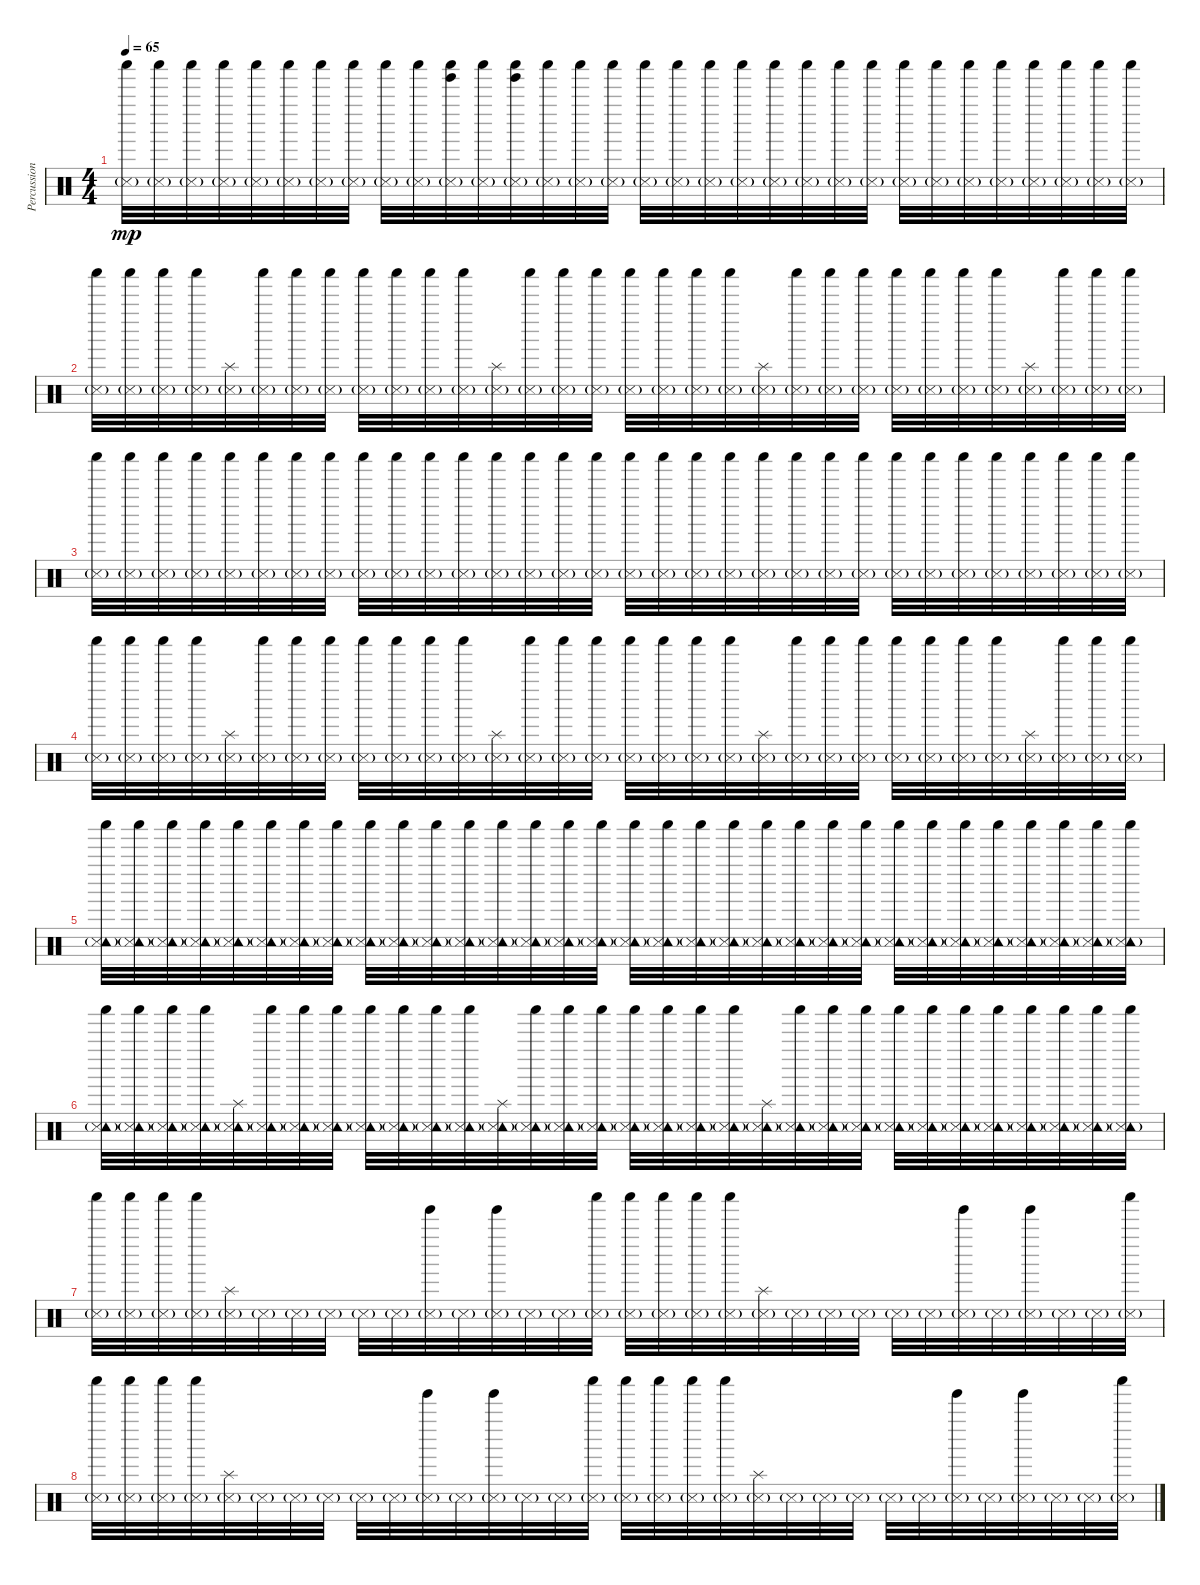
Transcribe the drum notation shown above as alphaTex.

\track ("Percussion 2" "Percussion") {instrument percussion}
\staff {score}
\articulation defaults
\ts (4 4)
\section ("" "")
\tempo 65
\clef neutral
\ks c
("Snare (side stick) 3"{g} "Shaker (hit)").32{dy mp} ("Snare (side stick) 3"{g} "Shaker (hit)").32 ("Snare (side stick) 3"{g} "Shaker (hit)").32 ("Snare (side stick) 3"{g} "Shaker (hit)").32 ("Snare (side stick) 3"{g} "Shaker (hit)").32 ("Snare (side stick) 3"{g} "Shaker (hit)").32 ("Snare (side stick) 3"{g} "Shaker (hit)").32 ("Snare (side stick) 3"{g} "Shaker (hit)").32 ("Snare (side stick) 3"{g} "Shaker (hit)").32 ("Snare (side stick) 3"{g} "Shaker (hit)").32 ("Tinkle Bell (hit)" "Snare (side stick) 3"{g} "Shaker (hit)").32 ("Snare (side stick) 3"{g} "Shaker (hit)").32 ("Tinkle Bell (hit)" "Snare (side stick) 3"{g} "Shaker (hit)").32 ("Snare (side stick) 3"{g} "Shaker (hit)").32 ("Snare (side stick) 3"{g} "Shaker (hit)").32 ("Snare (side stick) 3"{g} "Shaker (hit)").32 ("Snare (side stick) 3"{g} "Shaker (hit)").32 ("Snare (side stick) 3"{g} "Shaker (hit)").32 ("Snare (side stick) 3"{g} "Shaker (hit)").32 ("Snare (side stick) 3"{g} "Shaker (hit)").32 ("Snare (side stick) 3"{g} "Shaker (hit)").32 ("Snare (side stick) 3"{g} "Shaker (hit)").32 ("Snare (side stick) 3"{g} "Shaker (hit)").32 ("Snare (side stick) 3"{g} "Shaker (hit)").32 ("Snare (side stick) 3"{g} "Shaker (hit)").32 ("Snare (side stick) 3"{g} "Shaker (hit)").32 ("Snare (side stick) 3"{g} "Shaker (hit)").32 ("Snare (side stick) 3"{g} "Shaker (hit)").32 ("Snare (side stick) 3"{g} "Shaker (hit)").32 ("Snare (side stick) 3"{g} "Shaker (hit)").32 ("Snare (side stick) 3"{g} "Shaker (hit)").32 ("Snare (side stick) 3"{g} "Shaker (hit)").32 |
("Snare (side stick) 3"{g} "Shaker (hit)").32 ("Snare (side stick) 3"{g} "Shaker (hit)").32 ("Snare (side stick) 3"{g} "Shaker (hit)").32 ("Snare (side stick) 3"{g} "Shaker (hit)").32 ("Snare (side stick) 3"{g} "Splash (hit)").32 ("Snare (side stick) 3"{g} "Shaker (hit)").32 ("Snare (side stick) 3"{g} "Shaker (hit)").32 ("Snare (side stick) 3"{g} "Shaker (hit)").32 ("Snare (side stick) 3"{g} "Shaker (hit)").32 ("Snare (side stick) 3"{g} "Shaker (hit)").32 ("Snare (side stick) 3"{g} "Shaker (hit)").32 ("Snare (side stick) 3"{g} "Shaker (hit)").32 ("Snare (side stick) 3"{g} "Splash (hit)").32 ("Snare (side stick) 3"{g} "Shaker (hit)").32 ("Snare (side stick) 3"{g} "Shaker (hit)").32 ("Snare (side stick) 3"{g} "Shaker (hit)").32 ("Snare (side stick) 3"{g} "Shaker (hit)").32 ("Snare (side stick) 3"{g} "Shaker (hit)").32 ("Snare (side stick) 3"{g} "Shaker (hit)").32 ("Snare (side stick) 3"{g} "Shaker (hit)").32 ("Snare (side stick) 3"{g} "Splash (hit)").32 ("Snare (side stick) 3"{g} "Shaker (hit)").32 ("Snare (side stick) 3"{g} "Shaker (hit)").32 ("Snare (side stick) 3"{g} "Shaker (hit)").32 ("Snare (side stick) 3"{g} "Shaker (hit)").32 ("Snare (side stick) 3"{g} "Shaker (hit)").32 ("Snare (side stick) 3"{g} "Shaker (hit)").32 ("Snare (side stick) 3"{g} "Shaker (hit)").32 ("Snare (side stick) 3"{g} "Splash (hit)").32 ("Snare (side stick) 3"{g} "Shaker (hit)").32 ("Snare (side stick) 3"{g} "Shaker (hit)").32 ("Snare (side stick) 3"{g} "Shaker (hit)").32 |
("Snare (side stick) 3"{g} "Shaker (hit)").32 ("Snare (side stick) 3"{g} "Shaker (hit)").32 ("Snare (side stick) 3"{g} "Shaker (hit)").32 ("Snare (side stick) 3"{g} "Shaker (hit)").32 ("Snare (side stick) 3"{g} "Shaker (hit)").32 ("Snare (side stick) 3"{g} "Shaker (hit)").32 ("Snare (side stick) 3"{g} "Shaker (hit)").32 ("Snare (side stick) 3"{g} "Shaker (hit)").32 ("Snare (side stick) 3"{g} "Shaker (hit)").32 ("Snare (side stick) 3"{g} "Shaker (hit)").32 ("Snare (side stick) 3"{g} "Shaker (hit)").32 ("Snare (side stick) 3"{g} "Shaker (hit)").32 ("Snare (side stick) 3"{g} "Shaker (hit)").32 ("Snare (side stick) 3"{g} "Shaker (hit)").32 ("Snare (side stick) 3"{g} "Shaker (hit)").32 ("Snare (side stick) 3"{g} "Shaker (hit)").32 ("Snare (side stick) 3"{g} "Shaker (hit)").32 ("Snare (side stick) 3"{g} "Shaker (hit)").32 ("Snare (side stick) 3"{g} "Shaker (hit)").32 ("Snare (side stick) 3"{g} "Shaker (hit)").32 ("Snare (side stick) 3"{g} "Shaker (hit)").32 ("Snare (side stick) 3"{g} "Shaker (hit)").32 ("Snare (side stick) 3"{g} "Shaker (hit)").32 ("Snare (side stick) 3"{g} "Shaker (hit)").32 ("Snare (side stick) 3"{g} "Shaker (hit)").32 ("Snare (side stick) 3"{g} "Shaker (hit)").32 ("Snare (side stick) 3"{g} "Shaker (hit)").32 ("Snare (side stick) 3"{g} "Shaker (hit)").32 ("Snare (side stick) 3"{g} "Shaker (hit)").32 ("Snare (side stick) 3"{g} "Shaker (hit)").32 ("Snare (side stick) 3"{g} "Shaker (hit)").32 ("Snare (side stick) 3"{g} "Shaker (hit)").32 |
("Snare (side stick) 3"{g} "Shaker (hit)").32 ("Snare (side stick) 3"{g} "Shaker (hit)").32 ("Snare (side stick) 3"{g} "Shaker (hit)").32 ("Snare (side stick) 3"{g} "Shaker (hit)").32 ("Snare (side stick) 3"{g} "Splash (hit)").32 ("Snare (side stick) 3"{g} "Shaker (hit)").32 ("Snare (side stick) 3"{g} "Shaker (hit)").32 ("Snare (side stick) 3"{g} "Shaker (hit)").32 ("Snare (side stick) 3"{g} "Shaker (hit)").32 ("Snare (side stick) 3"{g} "Shaker (hit)").32 ("Snare (side stick) 3"{g} "Shaker (hit)").32 ("Snare (side stick) 3"{g} "Shaker (hit)").32 ("Snare (side stick) 3"{g} "Splash (hit)").32 ("Snare (side stick) 3"{g} "Shaker (hit)").32 ("Snare (side stick) 3"{g} "Shaker (hit)").32 ("Snare (side stick) 3"{g} "Shaker (hit)").32 ("Snare (side stick) 3"{g} "Shaker (hit)").32 ("Snare (side stick) 3"{g} "Shaker (hit)").32 ("Snare (side stick) 3"{g} "Shaker (hit)").32 ("Snare (side stick) 3"{g} "Shaker (hit)").32 ("Snare (side stick) 3"{g} "Splash (hit)").32 ("Snare (side stick) 3"{g} "Shaker (hit)").32 ("Snare (side stick) 3"{g} "Shaker (hit)").32 ("Snare (side stick) 3"{g} "Shaker (hit)").32 ("Snare (side stick) 3"{g} "Shaker (hit)").32 ("Snare (side stick) 3"{g} "Shaker (hit)").32 ("Snare (side stick) 3"{g} "Shaker (hit)").32 ("Snare (side stick) 3"{g} "Shaker (hit)").32 ("Snare (side stick) 3"{g} "Splash (hit)").32 ("Snare (side stick) 3"{g} "Shaker (hit)").32 ("Snare (side stick) 3"{g} "Shaker (hit)").32 ("Snare (side stick) 3"{g} "Shaker (hit)").32 |
("Tambourine (hit)" "Snare (side stick) 3"{g} "Shaker (hit)").32 ("Tambourine (hit)"{g} "Snare (side stick) 3"{g} "Shaker (hit)").32 ("Tambourine (hit)" "Snare (side stick) 3"{g} "Shaker (hit)").32 ("Tambourine (hit)"{g} "Snare (side stick) 3"{g} "Shaker (hit)").32 ("Tambourine (hit)" "Snare (side stick) 3"{g} "Shaker (hit)").32 ("Tambourine (hit)"{g} "Snare (side stick) 3"{g} "Shaker (hit)").32 ("Tambourine (hit)" "Snare (side stick) 3"{g} "Shaker (hit)").32 ("Tambourine (hit)"{g} "Snare (side stick) 3"{g} "Shaker (hit)").32 ("Tambourine (hit)" "Snare (side stick) 3"{g} "Shaker (hit)").32 ("Tambourine (hit)"{g} "Snare (side stick) 3"{g} "Shaker (hit)").32 ("Tambourine (hit)" "Snare (side stick) 3"{g} "Shaker (hit)").32 ("Tambourine (hit)"{g} "Snare (side stick) 3"{g} "Shaker (hit)").32 ("Tambourine (hit)" "Snare (side stick) 3"{g} "Shaker (hit)").32 ("Tambourine (hit)"{g} "Snare (side stick) 3"{g} "Shaker (hit)").32 ("Tambourine (hit)" "Snare (side stick) 3"{g} "Shaker (hit)").32 ("Tambourine (hit)"{g} "Snare (side stick) 3"{g} "Shaker (hit)").32 ("Tambourine (hit)" "Snare (side stick) 3"{g} "Shaker (hit)").32 ("Tambourine (hit)"{g} "Snare (side stick) 3"{g} "Shaker (hit)").32 ("Tambourine (hit)" "Snare (side stick) 3"{g} "Shaker (hit)").32 ("Tambourine (hit)"{g} "Snare (side stick) 3"{g} "Shaker (hit)").32 ("Tambourine (hit)" "Snare (side stick) 3"{g} "Shaker (hit)").32 ("Tambourine (hit)"{g} "Snare (side stick) 3"{g} "Shaker (hit)").32 ("Tambourine (hit)" "Snare (side stick) 3"{g} "Shaker (hit)").32 ("Tambourine (hit)"{g} "Snare (side stick) 3"{g} "Shaker (hit)").32 ("Tambourine (hit)" "Snare (side stick) 3"{g} "Shaker (hit)").32 ("Tambourine (hit)"{g} "Snare (side stick) 3"{g} "Shaker (hit)").32 ("Tambourine (hit)" "Snare (side stick) 3"{g} "Shaker (hit)").32 ("Tambourine (hit)"{g} "Snare (side stick) 3"{g} "Shaker (hit)").32 ("Tambourine (hit)" "Snare (side stick) 3"{g} "Shaker (hit)").32 ("Tambourine (hit)"{g} "Snare (side stick) 3"{g} "Shaker (hit)").32 ("Tambourine (hit)" "Snare (side stick) 3"{g} "Shaker (hit)").32 ("Tambourine (hit)"{g} "Snare (side stick) 3"{g} "Shaker (hit)").32 |
("Tambourine (hit)" "Snare (side stick) 3"{g} "Shaker (hit)").32 ("Tambourine (hit)"{g} "Snare (side stick) 3"{g} "Shaker (hit)").32 ("Tambourine (hit)" "Snare (side stick) 3"{g} "Shaker (hit)").32 ("Tambourine (hit)"{g} "Snare (side stick) 3"{g} "Shaker (hit)").32 ("Tambourine (hit)" "Snare (side stick) 3"{g} "Splash (hit)").32 ("Tambourine (hit)"{g} "Snare (side stick) 3"{g} "Shaker (hit)").32 ("Tambourine (hit)" "Snare (side stick) 3"{g} "Shaker (hit)").32 ("Tambourine (hit)"{g} "Snare (side stick) 3"{g} "Shaker (hit)").32 ("Tambourine (hit)" "Snare (side stick) 3"{g} "Shaker (hit)").32 ("Tambourine (hit)"{g} "Snare (side stick) 3"{g} "Shaker (hit)").32 ("Tambourine (hit)" "Snare (side stick) 3"{g} "Shaker (hit)").32 ("Tambourine (hit)"{g} "Snare (side stick) 3"{g} "Shaker (hit)").32 ("Tambourine (hit)" "Snare (side stick) 3"{g} "Splash (hit)").32 ("Tambourine (hit)"{g} "Snare (side stick) 3"{g} "Shaker (hit)").32 ("Tambourine (hit)" "Snare (side stick) 3"{g} "Shaker (hit)").32 ("Tambourine (hit)"{g} "Snare (side stick) 3"{g} "Shaker (hit)").32 ("Tambourine (hit)" "Snare (side stick) 3"{g} "Shaker (hit)").32 ("Tambourine (hit)"{g} "Snare (side stick) 3"{g} "Shaker (hit)").32 ("Tambourine (hit)" "Snare (side stick) 3"{g} "Shaker (hit)").32 ("Tambourine (hit)"{g} "Snare (side stick) 3"{g} "Shaker (hit)").32 ("Tambourine (hit)" "Snare (side stick) 3"{g} "Splash (hit)").32 ("Tambourine (hit)"{g} "Snare (side stick) 3"{g} "Shaker (hit)").32 ("Tambourine (hit)" "Snare (side stick) 3"{g} "Shaker (hit)").32 ("Tambourine (hit)"{g} "Snare (side stick) 3"{g} "Shaker (hit)").32 ("Tambourine (hit)" "Snare (side stick) 3"{g} "Shaker (hit)").32 ("Tambourine (hit)"{g} "Snare (side stick) 3"{g} "Shaker (hit)").32 ("Tambourine (hit)" "Snare (side stick) 3"{g} "Shaker (hit)").32 ("Tambourine (hit)"{g} "Snare (side stick) 3"{g} "Shaker (hit)").32 ("Tambourine (hit)" "Snare (side stick) 3"{g} "Shaker (hit)").32 ("Tambourine (hit)"{g} "Snare (side stick) 3"{g} "Shaker (hit)").32 ("Tambourine (hit)" "Snare (side stick) 3"{g} "Shaker (hit)").32 ("Tambourine (hit)"{g} "Snare (side stick) 3"{g} "Shaker (hit)").32 |
\section ("" "")
("Snare (side stick) 3"{g} "Shaker (hit)").32 ("Snare (side stick) 3"{g} "Shaker (hit)").32 ("Snare (side stick) 3"{g} "Shaker (hit)").32 ("Snare (side stick) 3"{g} "Shaker (hit)").32 ("Snare (side stick) 3"{g} "Splash (hit)").32 "Snare (side stick) 3"{g}.32 "Snare (side stick) 3"{g}.32 "Snare (side stick) 3"{g}.32 "Snare (side stick) 3"{g}.32 "Snare (side stick) 3"{g}.32 ("Tinkle Bell (hit)" "Snare (side stick) 3"{g}).32 "Snare (side stick) 3"{g}.32 ("Tinkle Bell (hit)" "Snare (side stick) 3"{g}).32 "Snare (side stick) 3"{g}.32 "Snare (side stick) 3"{g}.32 ("Snare (side stick) 3"{g} "Shaker (hit)").32 ("Snare (side stick) 3"{g} "Shaker (hit)").32 ("Snare (side stick) 3"{g} "Shaker (hit)").32 ("Snare (side stick) 3"{g} "Shaker (hit)").32 ("Snare (side stick) 3"{g} "Shaker (hit)").32 ("Snare (side stick) 3"{g} "Splash (hit)").32 "Snare (side stick) 3"{g}.32 "Snare (side stick) 3"{g}.32 "Snare (side stick) 3"{g}.32 "Snare (side stick) 3"{g}.32 "Snare (side stick) 3"{g}.32 ("Tinkle Bell (hit)" "Snare (side stick) 3"{g}).32 "Snare (side stick) 3"{g}.32 ("Tinkle Bell (hit)" "Snare (side stick) 3"{g}).32 "Snare (side stick) 3"{g}.32 "Snare (side stick) 3"{g}.32 ("Snare (side stick) 3"{g} "Shaker (hit)").32 |
("Snare (side stick) 3"{g} "Shaker (hit)").32 ("Snare (side stick) 3"{g} "Shaker (hit)").32 ("Snare (side stick) 3"{g} "Shaker (hit)").32 ("Snare (side stick) 3"{g} "Shaker (hit)").32 ("Snare (side stick) 3"{g} "Splash (hit)").32 "Snare (side stick) 3"{g}.32 "Snare (side stick) 3"{g}.32 "Snare (side stick) 3"{g}.32 "Snare (side stick) 3"{g}.32 "Snare (side stick) 3"{g}.32 ("Tinkle Bell (hit)" "Snare (side stick) 3"{g}).32 "Snare (side stick) 3"{g}.32 ("Tinkle Bell (hit)" "Snare (side stick) 3"{g}).32 "Snare (side stick) 3"{g}.32 "Snare (side stick) 3"{g}.32 ("Snare (side stick) 3"{g} "Shaker (hit)").32 ("Snare (side stick) 3"{g} "Shaker (hit)").32 ("Snare (side stick) 3"{g} "Shaker (hit)").32 ("Snare (side stick) 3"{g} "Shaker (hit)").32 ("Snare (side stick) 3"{g} "Shaker (hit)").32 ("Snare (side stick) 3"{g} "Splash (hit)").32 "Snare (side stick) 3"{g}.32 "Snare (side stick) 3"{g}.32 "Snare (side stick) 3"{g}.32 "Snare (side stick) 3"{g}.32 "Snare (side stick) 3"{g}.32 ("Tinkle Bell (hit)" "Snare (side stick) 3"{g}).32 "Snare (side stick) 3"{g}.32 ("Tinkle Bell (hit)" "Snare (side stick) 3"{g}).32 "Snare (side stick) 3"{g}.32 "Snare (side stick) 3"{g}.32 ("Snare (side stick) 3"{g} "Shaker (hit)").32
